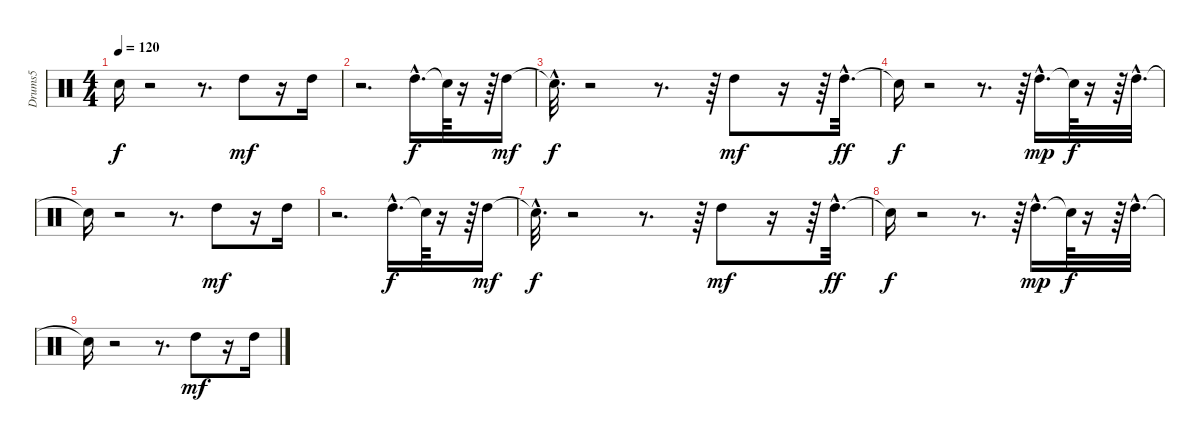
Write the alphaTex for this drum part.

\track ("Drums5" "Drums5") {instrument percussion}
\staff {score}
\articulation defaults
\ts (4 4)
\tempo 120
\clef neutral
\ks c "Snare (hit)"{t}.16{dy f}
r.2 r.8{d} "High Tom (hit)".8{dy mf} r.16 "High Tom (hit)".16 |
r.2{d} "High Tom (hit)"{hac}.16{d dy f} "Snare (hit)"{t}.64 r.16 r.64 "High Tom (hit)".16{dy mf} |
"Snare (hit)"{hac t}.32{d dy f} r.2 r.8{d} r.64 "High Tom (hit)".8{dy mf} r.16 r.64 "High Tom (hit)"{hac}.32{d dy ff} |
"Snare (hit)"{t}.16{dy f} r.2 r.8{d} r.64 "High Tom (hit)"{hac}.16{d dy mp} "Snare (hit)"{t}.64{dy f} r.16 r.64 "High Tom (hit)"{hac}.32{d} |
"Snare (hit)"{t}.16 r.2 r.8{d} "High Tom (hit)".8{dy mf} r.16 "High Tom (hit)".16 |
r.2{d} "High Tom (hit)"{hac}.16{d dy f} "Snare (hit)"{t}.64 r.16 r.64 "High Tom (hit)".16{dy mf} |
"Snare (hit)"{hac t}.32{d dy f} r.2 r.8{d} r.64 "High Tom (hit)".8{dy mf} r.16 r.64 "High Tom (hit)"{hac}.32{d dy ff} |
"Snare (hit)"{t}.16{dy f} r.2 r.8{d} r.64 "High Tom (hit)"{hac}.16{d dy mp} "Snare (hit)"{t}.64{dy f} r.16 r.64 "High Tom (hit)"{hac}.32{d} |
"Snare (hit)"{t}.16 r.2 r.8{d} "High Tom (hit)".8{dy mf} r.16 "High Tom (hit)".16
